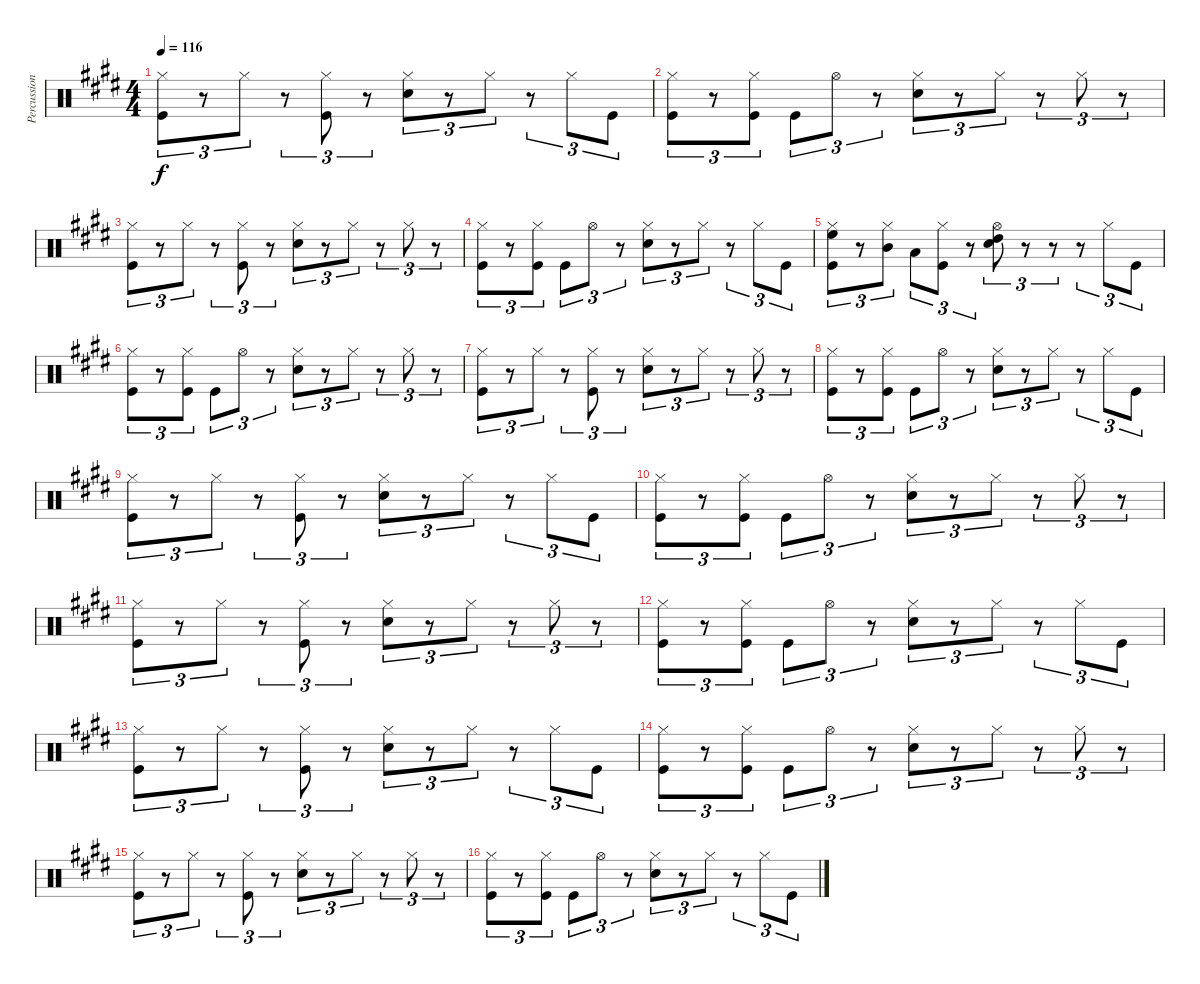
\track ("Percussion" "Percussion") {instrument percussion}
\staff {score}
\articulation defaults
\ts (4 4)
\tempo 116
\clef neutral
\ks c#minor
("Hi-Hat (closed)" "Kick (hit)").8{tu (3 2) dy f} r.8{tu (3 2)} "Hi-Hat (closed)".8{tu (3 2)} r.8{tu (3 2)} ("Hi-Hat (closed)" "Kick (hit)").8{tu (3 2)} r.8{tu (3 2)} ("Snare (hit) 2" "Hi-Hat (closed)").8{tu (3 2)} r.8{tu (3 2)} "Hi-Hat (closed)".8{tu (3 2)} r.8{tu (3 2)} "Hi-Hat (closed)".8{tu (3 2)} "Kick (hit)".8{tu (3 2)} |
("Hi-Hat (closed)" "Kick (hit)").8{tu (3 2)} r.8{tu (3 2)} ("Hi-Hat (closed)" "Kick (hit)").8{tu (3 2)} "Kick (hit)".8{tu (3 2)} "Hi-Hat (open)".8{tu (3 2)} r.8{tu (3 2)} ("Snare (hit) 2" "Hi-Hat (closed)").8{tu (3 2)} r.8{tu (3 2)} "Hi-Hat (closed)".8{tu (3 2)} r.8{tu (3 2)} "Hi-Hat (closed)".8{tu (3 2)} r.8{tu (3 2)} |
("Hi-Hat (closed)" "Kick (hit)").8{tu (3 2)} r.8{tu (3 2)} "Hi-Hat (closed)".8{tu (3 2)} r.8{tu (3 2)} ("Hi-Hat (closed)" "Kick (hit)").8{tu (3 2)} r.8{tu (3 2)} ("Snare (hit) 2" "Hi-Hat (closed)").8{tu (3 2)} r.8{tu (3 2)} "Hi-Hat (closed)".8{tu (3 2)} r.8{tu (3 2)} "Hi-Hat (closed)".8{tu (3 2)} r.8{tu (3 2)} |
("Hi-Hat (closed)" "Kick (hit)").8{tu (3 2)} r.8{tu (3 2)} ("Hi-Hat (closed)" "Kick (hit)").8{tu (3 2)} "Kick (hit)".8{tu (3 2)} "Hi-Hat (open)".8{tu (3 2)} r.8{tu (3 2)} ("Snare (hit) 2" "Hi-Hat (closed)").8{tu (3 2)} r.8{tu (3 2)} "Hi-Hat (closed)".8{tu (3 2)} r.8{tu (3 2)} "Hi-Hat (closed)".8{tu (3 2)} "Kick (hit)".8{tu (3 2)} |
("High Floor Tom (hit)" "Hi-Hat (closed)" "Kick (hit)").8{tu (3 2)} r.8{tu (3 2)} ("Mid Tom (hit)" "Hi-Hat (closed)").8{tu (3 2)} "Low Tom (hit)".8{tu (3 2)} ("Hi-Hat (closed)" "Kick (hit)").8{tu (3 2)} r.8{tu (3 2)} ("High Tom (hit)" "Snare (hit) 2" "Hi-Hat (open)").8{tu (3 2)} r.8{tu (3 2)} r.8{tu (3 2)} r.8{tu (3 2)} "Hi-Hat (closed)".8{tu (3 2)} "Kick (hit)".8{tu (3 2)} |
("Hi-Hat (closed)" "Kick (hit)").8{tu (3 2)} r.8{tu (3 2)} ("Hi-Hat (closed)" "Kick (hit)").8{tu (3 2)} "Kick (hit)".8{tu (3 2)} "Hi-Hat (open)".8{tu (3 2)} r.8{tu (3 2)} ("Snare (hit) 2" "Hi-Hat (closed)").8{tu (3 2)} r.8{tu (3 2)} "Hi-Hat (closed)".8{tu (3 2)} r.8{tu (3 2)} "Hi-Hat (closed)".8{tu (3 2)} r.8{tu (3 2)} |
("Hi-Hat (closed)" "Kick (hit)").8{tu (3 2)} r.8{tu (3 2)} "Hi-Hat (closed)".8{tu (3 2)} r.8{tu (3 2)} ("Hi-Hat (closed)" "Kick (hit)").8{tu (3 2)} r.8{tu (3 2)} ("Snare (hit) 2" "Hi-Hat (closed)").8{tu (3 2)} r.8{tu (3 2)} "Hi-Hat (closed)".8{tu (3 2)} r.8{tu (3 2)} "Hi-Hat (closed)".8{tu (3 2)} r.8{tu (3 2)} |
("Hi-Hat (closed)" "Kick (hit)").8{tu (3 2)} r.8{tu (3 2)} ("Hi-Hat (closed)" "Kick (hit)").8{tu (3 2)} "Kick (hit)".8{tu (3 2)} "Hi-Hat (open)".8{tu (3 2)} r.8{tu (3 2)} ("Snare (hit) 2" "Hi-Hat (closed)").8{tu (3 2)} r.8{tu (3 2)} "Hi-Hat (closed)".8{tu (3 2)} r.8{tu (3 2)} "Hi-Hat (closed)".8{tu (3 2)} "Kick (hit)".8{tu (3 2)} |
("Hi-Hat (closed)" "Kick (hit)").8{tu (3 2)} r.8{tu (3 2)} "Hi-Hat (closed)".8{tu (3 2)} r.8{tu (3 2)} ("Hi-Hat (closed)" "Kick (hit)").8{tu (3 2)} r.8{tu (3 2)} ("Snare (hit) 2" "Hi-Hat (closed)").8{tu (3 2)} r.8{tu (3 2)} "Hi-Hat (closed)".8{tu (3 2)} r.8{tu (3 2)} "Hi-Hat (closed)".8{tu (3 2)} "Kick (hit)".8{tu (3 2)} |
("Hi-Hat (closed)" "Kick (hit)").8{tu (3 2)} r.8{tu (3 2)} ("Hi-Hat (closed)" "Kick (hit)").8{tu (3 2)} "Kick (hit)".8{tu (3 2)} "Hi-Hat (open)".8{tu (3 2)} r.8{tu (3 2)} ("Snare (hit) 2" "Hi-Hat (closed)").8{tu (3 2)} r.8{tu (3 2)} "Hi-Hat (closed)".8{tu (3 2)} r.8{tu (3 2)} "Hi-Hat (closed)".8{tu (3 2)} r.8{tu (3 2)} |
("Hi-Hat (closed)" "Kick (hit)").8{tu (3 2)} r.8{tu (3 2)} "Hi-Hat (closed)".8{tu (3 2)} r.8{tu (3 2)} ("Hi-Hat (closed)" "Kick (hit)").8{tu (3 2)} r.8{tu (3 2)} ("Snare (hit) 2" "Hi-Hat (closed)").8{tu (3 2)} r.8{tu (3 2)} "Hi-Hat (closed)".8{tu (3 2)} r.8{tu (3 2)} "Hi-Hat (closed)".8{tu (3 2)} r.8{tu (3 2)} |
("Hi-Hat (closed)" "Kick (hit)").8{tu (3 2)} r.8{tu (3 2)} ("Hi-Hat (closed)" "Kick (hit)").8{tu (3 2)} "Kick (hit)".8{tu (3 2)} "Hi-Hat (open)".8{tu (3 2)} r.8{tu (3 2)} ("Snare (hit) 2" "Hi-Hat (closed)").8{tu (3 2)} r.8{tu (3 2)} "Hi-Hat (closed)".8{tu (3 2)} r.8{tu (3 2)} "Hi-Hat (closed)".8{tu (3 2)} "Kick (hit)".8{tu (3 2)} |
("Hi-Hat (closed)" "Kick (hit)").8{tu (3 2)} r.8{tu (3 2)} "Hi-Hat (closed)".8{tu (3 2)} r.8{tu (3 2)} ("Hi-Hat (closed)" "Kick (hit)").8{tu (3 2)} r.8{tu (3 2)} ("Snare (hit) 2" "Hi-Hat (closed)").8{tu (3 2)} r.8{tu (3 2)} "Hi-Hat (closed)".8{tu (3 2)} r.8{tu (3 2)} "Hi-Hat (closed)".8{tu (3 2)} "Kick (hit)".8{tu (3 2)} |
("Hi-Hat (closed)" "Kick (hit)").8{tu (3 2)} r.8{tu (3 2)} ("Hi-Hat (closed)" "Kick (hit)").8{tu (3 2)} "Kick (hit)".8{tu (3 2)} "Hi-Hat (open)".8{tu (3 2)} r.8{tu (3 2)} ("Snare (hit) 2" "Hi-Hat (closed)").8{tu (3 2)} r.8{tu (3 2)} "Hi-Hat (closed)".8{tu (3 2)} r.8{tu (3 2)} "Hi-Hat (closed)".8{tu (3 2)} r.8{tu (3 2)} |
("Hi-Hat (closed)" "Kick (hit)").8{tu (3 2)} r.8{tu (3 2)} "Hi-Hat (closed)".8{tu (3 2)} r.8{tu (3 2)} ("Hi-Hat (closed)" "Kick (hit)").8{tu (3 2)} r.8{tu (3 2)} ("Snare (hit) 2" "Hi-Hat (closed)").8{tu (3 2)} r.8{tu (3 2)} "Hi-Hat (closed)".8{tu (3 2)} r.8{tu (3 2)} "Hi-Hat (closed)".8{tu (3 2)} r.8{tu (3 2)} |
("Hi-Hat (closed)" "Kick (hit)").8{tu (3 2)} r.8{tu (3 2)} ("Hi-Hat (closed)" "Kick (hit)").8{tu (3 2)} "Kick (hit)".8{tu (3 2)} "Hi-Hat (open)".8{tu (3 2)} r.8{tu (3 2)} ("Snare (hit) 2" "Hi-Hat (closed)").8{tu (3 2)} r.8{tu (3 2)} "Hi-Hat (closed)".8{tu (3 2)} r.8{tu (3 2)} "Hi-Hat (closed)".8{tu (3 2)} "Kick (hit)".8{tu (3 2)}
